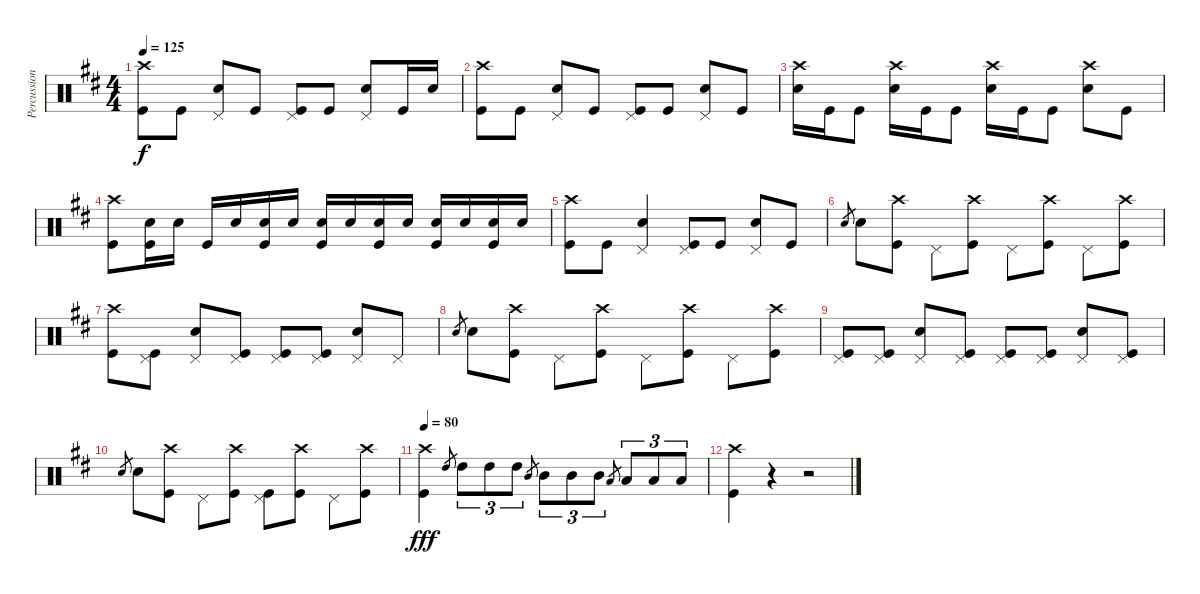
\track ("Percussion" "Percussion") {instrument percussion}
\staff {score}
\articulation defaults
\ts (4 4)
\tempo 125
\clef neutral
\ks d
("Crash high (hit)" "Kick (hit)").8{dy f} "Kick (hit)".8 ("Pedal Hi-Hat (hit)" "Snare (hit) 2").8 "Kick (hit)".8 ("Pedal Hi-Hat (hit)" "Kick (hit)").8 "Kick (hit)".8 ("Pedal Hi-Hat (hit)" "Snare (hit) 2").8 "Kick (hit)".16 "Snare (hit) 2".16 |
("Crash high (hit)" "Kick (hit)").8 "Kick (hit)".8 ("Pedal Hi-Hat (hit)" "Snare (hit) 2").8 "Kick (hit)".8 ("Pedal Hi-Hat (hit)" "Kick (hit)").8 "Kick (hit)".8 ("Pedal Hi-Hat (hit)" "Snare (hit) 2").8 "Kick (hit)".8 |
("Crash high (hit)" "Snare (hit) 2").16 "Kick (hit)".16 "Kick (hit)".8 ("Crash high (hit)" "Snare (hit) 2").16 "Kick (hit)".16 "Kick (hit)".8 ("Crash high (hit)" "Snare (hit) 2").16 "Kick (hit)".16 "Kick (hit)".8 ("Crash high (hit)" "Snare (hit) 2").8 "Kick (hit)".8 |
("Crash high (hit)" "Kick (hit)").8 ("Snare (hit) 2" "Kick (hit)").16 "Snare (hit) 2".16 "Kick (hit)".16 "Snare (hit) 2".16 ("Snare (hit) 2" "Kick (hit)").16 "Snare (hit) 2".16 ("Snare (hit) 2" "Kick (hit)").16 "Snare (hit) 2".16 ("Snare (hit) 2" "Kick (hit)").16 "Snare (hit) 2".16 ("Snare (hit) 2" "Kick (hit)").16 "Snare (hit) 2".16 ("Snare (hit) 2" "Kick (hit)").16 "Snare (hit) 2".16 |
("Crash high (hit)" "Kick (hit)").8 "Kick (hit)".8 ("Pedal Hi-Hat (hit)" "Snare (hit) 2").4 ("Pedal Hi-Hat (hit)" "Kick (hit)").8 "Kick (hit)".8 ("Pedal Hi-Hat (hit)" "Snare (hit) 2").8 "Kick (hit)".8 |
"Snare (hit) 2".8{gr} "Snare (hit) 2".8 ("Crash high (hit)" "Kick (hit)").8 "Pedal Hi-Hat (hit)".8 ("Crash high (hit)" "Kick (hit)").8 "Pedal Hi-Hat (hit)".8 ("Crash high (hit)" "Kick (hit)").8 "Pedal Hi-Hat (hit)".8 ("Crash high (hit)" "Kick (hit)").8 |
("Crash high (hit)" "Kick (hit)").8 ("Pedal Hi-Hat (hit)" "Kick (hit)").8 ("Pedal Hi-Hat (hit)" "Snare (hit) 2").8 ("Pedal Hi-Hat (hit)" "Kick (hit)").8 ("Pedal Hi-Hat (hit)" "Kick (hit)").8 ("Pedal Hi-Hat (hit)" "Kick (hit)").8 ("Pedal Hi-Hat (hit)" "Snare (hit) 2").8 "Pedal Hi-Hat (hit)".8 |
"Snare (hit) 2".8{gr} "Snare (hit) 2".8 ("Crash high (hit)" "Kick (hit)").8 "Pedal Hi-Hat (hit)".8 ("Crash high (hit)" "Kick (hit)").8 "Pedal Hi-Hat (hit)".8 ("Crash high (hit)" "Kick (hit)").8 "Pedal Hi-Hat (hit)".8 ("Crash high (hit)" "Kick (hit)").8 |
("Pedal Hi-Hat (hit)" "Kick (hit)").8 ("Pedal Hi-Hat (hit)" "Kick (hit)").8 ("Pedal Hi-Hat (hit)" "Snare (hit) 2").8 ("Pedal Hi-Hat (hit)" "Kick (hit)").8 ("Pedal Hi-Hat (hit)" "Kick (hit)").8 ("Pedal Hi-Hat (hit)" "Kick (hit)").8 ("Pedal Hi-Hat (hit)" "Snare (hit) 2").8 ("Pedal Hi-Hat (hit)" "Kick (hit)").8 |
"Snare (hit) 2".8{gr} "Snare (hit) 2".8 ("Crash high (hit)" "Kick (hit)").8 "Pedal Hi-Hat (hit)".8 ("Crash high (hit)" "Kick (hit)").8 ("Pedal Hi-Hat (hit)" "Kick (hit)").8 ("Crash high (hit)" "Kick (hit)").8 "Pedal Hi-Hat (hit)".8 ("Crash high (hit)" "Kick (hit)").8 |
\tempo 80
("Crash high (hit)" "Kick (hit)").4{dy fff} "High Tom (hit)".8{gr} "High Tom (hit)".8{tu (3 2)} "High Tom (hit)".8{tu (3 2)} "High Tom (hit)".8{tu (3 2)} "Mid Tom (hit)".8{gr} "Mid Tom (hit)".8{tu (3 2)} "Mid Tom (hit)".8{tu (3 2)} "Mid Tom (hit)".8{tu (3 2)} "Low Tom (hit)".8{gr} "Low Tom (hit)".8{tu (3 2)} "Low Tom (hit)".8{tu (3 2)} "Low Tom (hit)".8{tu (3 2)} |
("Crash high (hit)" "Kick (hit)").4 r.4 r.2
